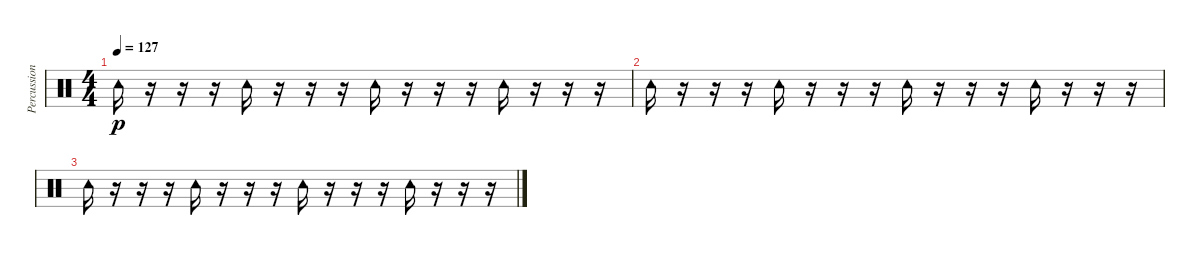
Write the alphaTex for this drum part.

\track ("Percussions" "Percussion") {instrument percussion}
\staff {score}
\articulation defaults
\ts (4 4)
\tempo 127
\clef neutral
\ks c "Tambourine (hit)".16{dy p}
r.16 r.16 r.16 "Tambourine (hit)".16 r.16 r.16 r.16 "Tambourine (hit)".16 r.16 r.16 r.16 "Tambourine (hit)".16 r.16 r.16 r.16 |
"Tambourine (hit)".16 r.16 r.16 r.16 "Tambourine (hit)".16 r.16 r.16 r.16 "Tambourine (hit)".16 r.16 r.16 r.16 "Tambourine (hit)".16 r.16 r.16 r.16 |
"Tambourine (hit)".16 r.16 r.16 r.16 "Tambourine (hit)".16 r.16 r.16 r.16 "Tambourine (hit)".16 r.16 r.16 r.16 "Tambourine (hit)".16 r.16 r.16 r.16
